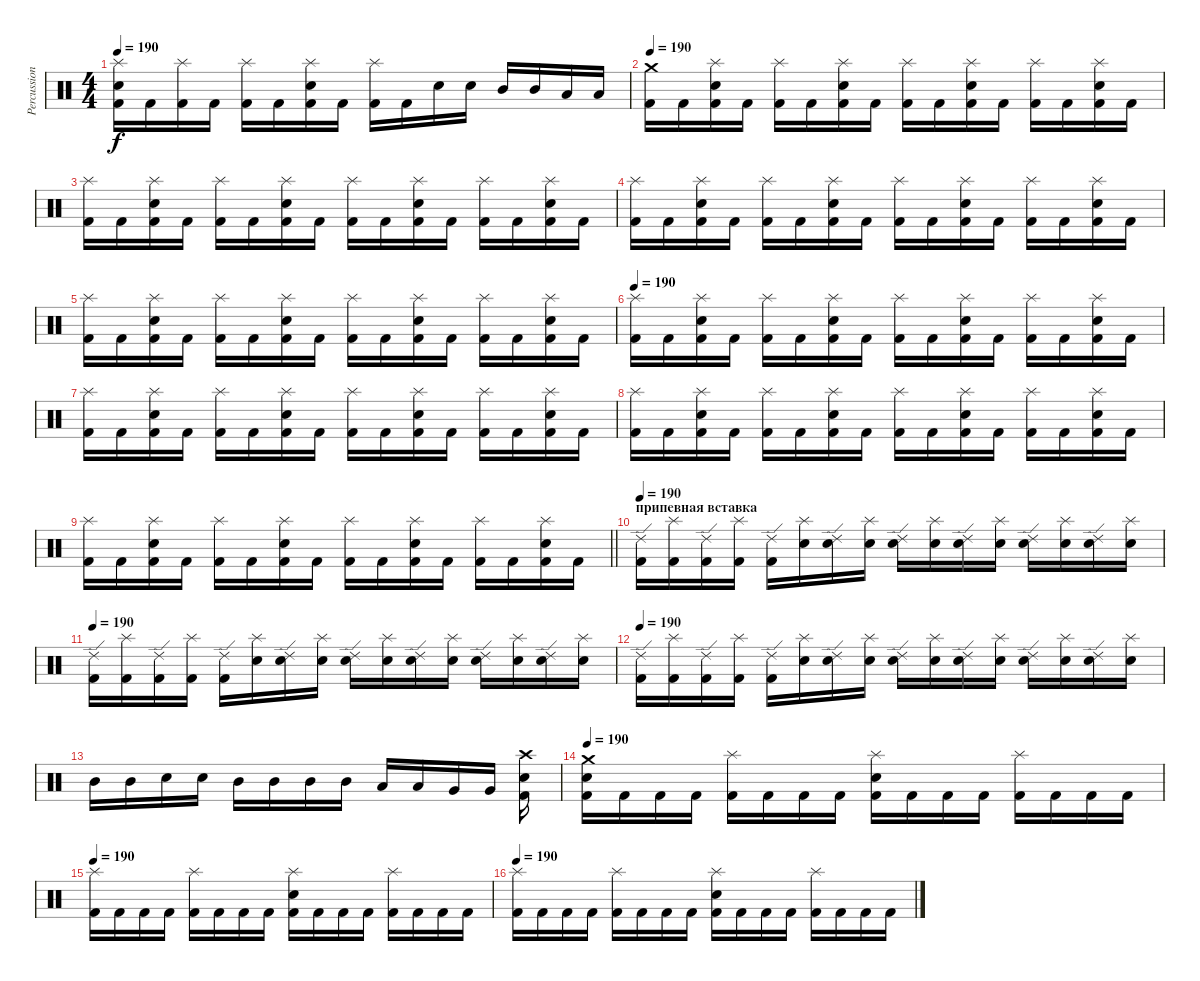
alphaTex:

\track ("Percussion" "Percussion") {instrument percussion}
\staff {score}
\articulation defaults
\ts (4 4)
\tempo 190
\clef neutral
\ks c
("Splash (hit)" "Kick (hit) 2" "Electric Snare (hit)").16{dy f} "Kick (hit) 2".16 ("Splash (hit)" "Kick (hit) 2").16 "Kick (hit) 2".16 ("Splash (hit)" "Kick (hit) 2").16 "Kick (hit) 2".16 ("Splash (hit)" "Kick (hit) 2" "Electric Snare (hit)").16 "Kick (hit) 2".16 ("Splash (hit)" "Kick (hit) 2").16 "Kick (hit) 2".16 "Electric Snare (hit)".16 "Electric Snare (hit)".16 "Mid Tom (hit)".16 "Mid Tom (hit)".16 "Low Tom (hit)".16 "Low Tom (hit)".16 |
\tempo 190
("Crash medium (hit)" "Kick (hit) 2").16 "Kick (hit) 2".16 ("Splash (hit)" "Kick (hit) 2" "Electric Snare (hit)").16 "Kick (hit) 2".16 ("Splash (hit)" "Kick (hit) 2").16 "Kick (hit) 2".16 ("Splash (hit)" "Kick (hit) 2" "Electric Snare (hit)").16 "Kick (hit) 2".16 ("Splash (hit)" "Kick (hit) 2").16 "Kick (hit) 2".16 ("Splash (hit)" "Kick (hit) 2" "Electric Snare (hit)").16 "Kick (hit) 2".16 ("Splash (hit)" "Kick (hit) 2").16 "Kick (hit) 2".16 ("Splash (hit)" "Kick (hit) 2" "Electric Snare (hit)").16 "Kick (hit) 2".16 |
("Splash (hit)" "Kick (hit) 2").16 "Kick (hit) 2".16 ("Splash (hit)" "Kick (hit) 2" "Electric Snare (hit)").16 "Kick (hit) 2".16 ("Splash (hit)" "Kick (hit) 2").16 "Kick (hit) 2".16 ("Splash (hit)" "Kick (hit) 2" "Electric Snare (hit)").16 "Kick (hit) 2".16 ("Splash (hit)" "Kick (hit) 2").16 "Kick (hit) 2".16 ("Splash (hit)" "Kick (hit) 2" "Electric Snare (hit)").16 "Kick (hit) 2".16 ("Splash (hit)" "Kick (hit) 2").16 "Kick (hit) 2".16 ("Splash (hit)" "Kick (hit) 2" "Electric Snare (hit)").16 "Kick (hit) 2".16 |
("Splash (hit)" "Kick (hit) 2").16 "Kick (hit) 2".16 ("Splash (hit)" "Kick (hit) 2" "Electric Snare (hit)").16 "Kick (hit) 2".16 ("Splash (hit)" "Kick (hit) 2").16 "Kick (hit) 2".16 ("Splash (hit)" "Kick (hit) 2" "Electric Snare (hit)").16 "Kick (hit) 2".16 ("Splash (hit)" "Kick (hit) 2").16 "Kick (hit) 2".16 ("Splash (hit)" "Kick (hit) 2" "Electric Snare (hit)").16 "Kick (hit) 2".16 ("Splash (hit)" "Kick (hit) 2").16 "Kick (hit) 2".16 ("Splash (hit)" "Kick (hit) 2" "Electric Snare (hit)").16 "Kick (hit) 2".16 |
("Splash (hit)" "Kick (hit) 2").16 "Kick (hit) 2".16 ("Splash (hit)" "Kick (hit) 2" "Electric Snare (hit)").16 "Kick (hit) 2".16 ("Splash (hit)" "Kick (hit) 2").16 "Kick (hit) 2".16 ("Splash (hit)" "Kick (hit) 2" "Electric Snare (hit)").16 "Kick (hit) 2".16 ("Splash (hit)" "Kick (hit) 2").16 "Kick (hit) 2".16 ("Splash (hit)" "Kick (hit) 2" "Electric Snare (hit)").16 "Kick (hit) 2".16 ("Splash (hit)" "Kick (hit) 2").16 "Kick (hit) 2".16 ("Splash (hit)" "Kick (hit) 2" "Electric Snare (hit)").16 "Kick (hit) 2".16 |
\tempo 190
("Splash (hit)" "Kick (hit) 2").16 "Kick (hit) 2".16 ("Splash (hit)" "Kick (hit) 2" "Electric Snare (hit)").16 "Kick (hit) 2".16 ("Splash (hit)" "Kick (hit) 2").16 "Kick (hit) 2".16 ("Splash (hit)" "Kick (hit) 2" "Electric Snare (hit)").16 "Kick (hit) 2".16 ("Splash (hit)" "Kick (hit) 2").16 "Kick (hit) 2".16 ("Splash (hit)" "Kick (hit) 2" "Electric Snare (hit)").16 "Kick (hit) 2".16 ("Splash (hit)" "Kick (hit) 2").16 "Kick (hit) 2".16 ("Splash (hit)" "Kick (hit) 2" "Electric Snare (hit)").16 "Kick (hit) 2".16 |
("Splash (hit)" "Kick (hit) 2").16 "Kick (hit) 2".16 ("Splash (hit)" "Kick (hit) 2" "Electric Snare (hit)").16 "Kick (hit) 2".16 ("Splash (hit)" "Kick (hit) 2").16 "Kick (hit) 2".16 ("Splash (hit)" "Kick (hit) 2" "Electric Snare (hit)").16 "Kick (hit) 2".16 ("Splash (hit)" "Kick (hit) 2").16 "Kick (hit) 2".16 ("Splash (hit)" "Kick (hit) 2" "Electric Snare (hit)").16 "Kick (hit) 2".16 ("Splash (hit)" "Kick (hit) 2").16 "Kick (hit) 2".16 ("Splash (hit)" "Kick (hit) 2" "Electric Snare (hit)").16 "Kick (hit) 2".16 |
("Splash (hit)" "Kick (hit) 2").16 "Kick (hit) 2".16 ("Splash (hit)" "Kick (hit) 2" "Electric Snare (hit)").16 "Kick (hit) 2".16 ("Splash (hit)" "Kick (hit) 2").16 "Kick (hit) 2".16 ("Splash (hit)" "Kick (hit) 2" "Electric Snare (hit)").16 "Kick (hit) 2".16 ("Splash (hit)" "Kick (hit) 2").16 "Kick (hit) 2".16 ("Splash (hit)" "Kick (hit) 2" "Electric Snare (hit)").16 "Kick (hit) 2".16 ("Splash (hit)" "Kick (hit) 2").16 "Kick (hit) 2".16 ("Splash (hit)" "Kick (hit) 2" "Electric Snare (hit)").16 "Kick (hit) 2".16 |
\barLineRight lightlight
("Splash (hit)" "Kick (hit) 2").16 "Kick (hit) 2".16 ("Splash (hit)" "Kick (hit) 2" "Electric Snare (hit)").16 "Kick (hit) 2".16 ("Splash (hit)" "Kick (hit) 2").16 "Kick (hit) 2".16 ("Splash (hit)" "Kick (hit) 2" "Electric Snare (hit)").16 "Kick (hit) 2".16 ("Splash (hit)" "Kick (hit) 2").16 "Kick (hit) 2".16 ("Splash (hit)" "Kick (hit) 2" "Electric Snare (hit)").16 "Kick (hit) 2".16 ("Splash (hit)" "Kick (hit) 2").16 "Kick (hit) 2".16 ("Splash (hit)" "Kick (hit) 2" "Electric Snare (hit)").16 "Kick (hit) 2".16 |
\section ("" "припевная вставка")
\tempo 190
("Ride (edge) 2" "Kick (hit) 2").16 ("Splash (hit)" "Kick (hit) 2").16 ("Ride (edge) 2" "Kick (hit) 2").16 ("Splash (hit)" "Kick (hit) 2").16 ("Ride (edge) 2" "Kick (hit) 2").16 ("Splash (hit)" "Snare (hit)").16 ("Ride (edge) 2" "Snare (hit)").16 ("Splash (hit)" "Snare (hit)").16 ("Ride (edge) 2" "Electric Snare (hit)").16 ("Splash (hit)" "Snare (hit)").16 ("Ride (edge) 2" "Snare (hit)").16 ("Splash (hit)" "Snare (hit)").16 ("Ride (edge) 2" "Snare (hit)").16 ("Splash (hit)" "Snare (hit)").16 ("Ride (edge) 2" "Snare (hit)").16 ("Splash (hit)" "Snare (hit)").16 |
\tempo 190
("Ride (edge) 2" "Kick (hit) 2").16 ("Splash (hit)" "Kick (hit) 2").16 ("Ride (edge) 2" "Kick (hit) 2").16 ("Splash (hit)" "Kick (hit) 2").16 ("Ride (edge) 2" "Kick (hit) 2").16 ("Splash (hit)" "Snare (hit)").16 ("Ride (edge) 2" "Snare (hit)").16 ("Splash (hit)" "Snare (hit)").16 ("Ride (edge) 2" "Electric Snare (hit)").16 ("Splash (hit)" "Snare (hit)").16 ("Ride (edge) 2" "Snare (hit)").16 ("Splash (hit)" "Snare (hit)").16 ("Ride (edge) 2" "Snare (hit)").16 ("Splash (hit)" "Snare (hit)").16 ("Ride (edge) 2" "Snare (hit)").16 ("Splash (hit)" "Snare (hit)").16 |
\tempo 190
("Ride (edge) 2" "Kick (hit) 2").16 ("Splash (hit)" "Kick (hit) 2").16 ("Ride (edge) 2" "Kick (hit) 2").16 ("Splash (hit)" "Kick (hit) 2").16 ("Ride (edge) 2" "Kick (hit) 2").16 ("Splash (hit)" "Snare (hit)").16 ("Ride (edge) 2" "Snare (hit)").16 ("Splash (hit)" "Snare (hit)").16 ("Ride (edge) 2" "Electric Snare (hit)").16 ("Splash (hit)" "Snare (hit)").16 ("Ride (edge) 2" "Snare (hit)").16 ("Splash (hit)" "Snare (hit)").16 ("Ride (edge) 2" "Snare (hit)").16 ("Splash (hit)" "Snare (hit)").16 ("Ride (edge) 2" "Snare (hit)").16 ("Splash (hit)" "Snare (hit)").16 |
"Mid Tom (hit)".16 "Mid Tom (hit)".16 "Electric Snare (hit)".16 "Electric Snare (hit)".16 "Mid Tom (hit)".16 "Mid Tom (hit)".16 "Mid Tom (hit)".16 "Mid Tom (hit)".16 "Low Tom (hit)".16 "Low Tom (hit)".16 "Very Low Tom (hit)".16 "Very Low Tom (hit)".16 ("Crash high (hit)" "Electric Snare (hit)" "Kick (hit) 2").16 |
\tempo 190
("Crash medium (hit)" "Kick (hit) 2" "Electric Snare (hit)").16 "Kick (hit) 2".16 "Kick (hit) 2".16 "Kick (hit) 2".16 ("Splash (hit)" "Kick (hit) 2").16 "Kick (hit) 2".16 "Kick (hit) 2".16 "Kick (hit) 2".16 ("Splash (hit)" "Kick (hit) 2" "Electric Snare (hit)").16 "Kick (hit) 2".16 "Kick (hit) 2".16 "Kick (hit) 2".16 ("Splash (hit)" "Kick (hit) 2").16 "Kick (hit) 2".16 "Kick (hit) 2".16 "Kick (hit) 2".16 |
\tempo 190
("Splash (hit)" "Kick (hit) 2").16 "Kick (hit) 2".16 "Kick (hit) 2".16 "Kick (hit) 2".16 ("Splash (hit)" "Kick (hit) 2").16 "Kick (hit) 2".16 "Kick (hit) 2".16 "Kick (hit) 2".16 ("Splash (hit)" "Kick (hit) 2" "Electric Snare (hit)").16 "Kick (hit) 2".16 "Kick (hit) 2".16 "Kick (hit) 2".16 ("Splash (hit)" "Kick (hit) 2").16 "Kick (hit) 2".16 "Kick (hit) 2".16 "Kick (hit) 2".16 |
\tempo 190
("Splash (hit)" "Kick (hit) 2").16 "Kick (hit) 2".16 "Kick (hit) 2".16 "Kick (hit) 2".16 ("Splash (hit)" "Kick (hit) 2").16 "Kick (hit) 2".16 "Kick (hit) 2".16 "Kick (hit) 2".16 ("Splash (hit)" "Kick (hit) 2" "Electric Snare (hit)").16 "Kick (hit) 2".16 "Kick (hit) 2".16 "Kick (hit) 2".16 ("Splash (hit)" "Kick (hit) 2").16 "Kick (hit) 2".16 "Kick (hit) 2".16 "Kick (hit) 2".16
